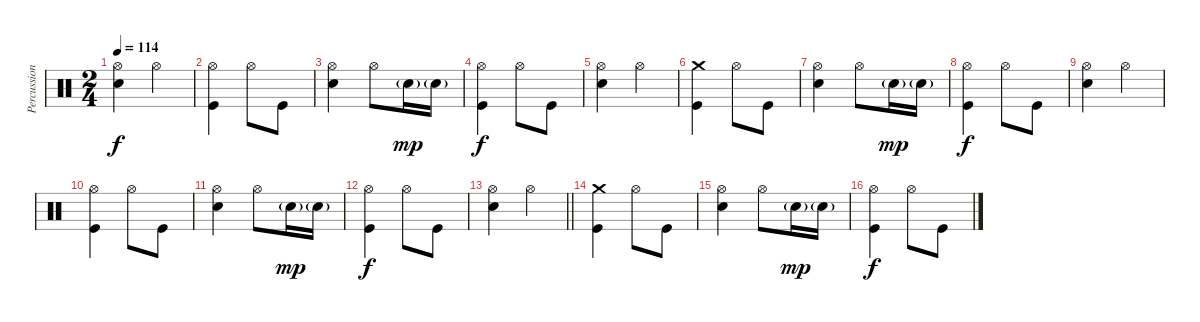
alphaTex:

\track ("Percussion" "Percussion") {instrument percussion}
\staff {score}
\articulation defaults
\ts (2 4)
\tempo 114
\clef neutral
\ks c
("Hi-Hat (open)" "Electric Snare (hit)").4{dy f} "Hi-Hat (open)".4 |
("Hi-Hat (open)" "Kick (hit)").4 "Hi-Hat (open)".8 "Kick (hit)".8 |
("Hi-Hat (open)" "Electric Snare (hit)").4 "Hi-Hat (open)".8 "Electric Snare (hit)"{g}.16{dy mp} "Electric Snare (hit)"{g}.16 |
("Hi-Hat (open)" "Kick (hit)").4{dy f} "Hi-Hat (open)".8 "Kick (hit)".8 |
("Hi-Hat (open)" "Electric Snare (hit)").4 "Hi-Hat (open)".4 |
("Crash medium (hit)" "Kick (hit)").4 "Hi-Hat (open)".8 "Kick (hit)".8 |
("Hi-Hat (open)" "Electric Snare (hit)").4 "Hi-Hat (open)".8 "Electric Snare (hit)"{g}.16{dy mp} "Electric Snare (hit)"{g}.16 |
("Hi-Hat (open)" "Kick (hit)").4{dy f} "Hi-Hat (open)".8 "Kick (hit)".8 |
("Hi-Hat (open)" "Electric Snare (hit)").4 "Hi-Hat (open)".4 |
("Hi-Hat (open)" "Kick (hit)").4 "Hi-Hat (open)".8 "Kick (hit)".8 |
("Hi-Hat (open)" "Electric Snare (hit)").4 "Hi-Hat (open)".8 "Electric Snare (hit)"{g}.16{dy mp} "Electric Snare (hit)"{g}.16 |
("Hi-Hat (open)" "Kick (hit)").4{dy f} "Hi-Hat (open)".8 "Kick (hit)".8 |
\barLineRight lightlight
("Hi-Hat (open)" "Electric Snare (hit)").4 "Hi-Hat (open)".4 |
\section ("" "")
("Crash medium (hit)" "Kick (hit)").4 "Hi-Hat (open)".8 "Kick (hit)".8 |
("Hi-Hat (open)" "Electric Snare (hit)").4 "Hi-Hat (open)".8 "Electric Snare (hit)"{g}.16{dy mp} "Electric Snare (hit)"{g}.16 |
("Hi-Hat (open)" "Kick (hit)").4{dy f} "Hi-Hat (open)".8 "Kick (hit)".8
